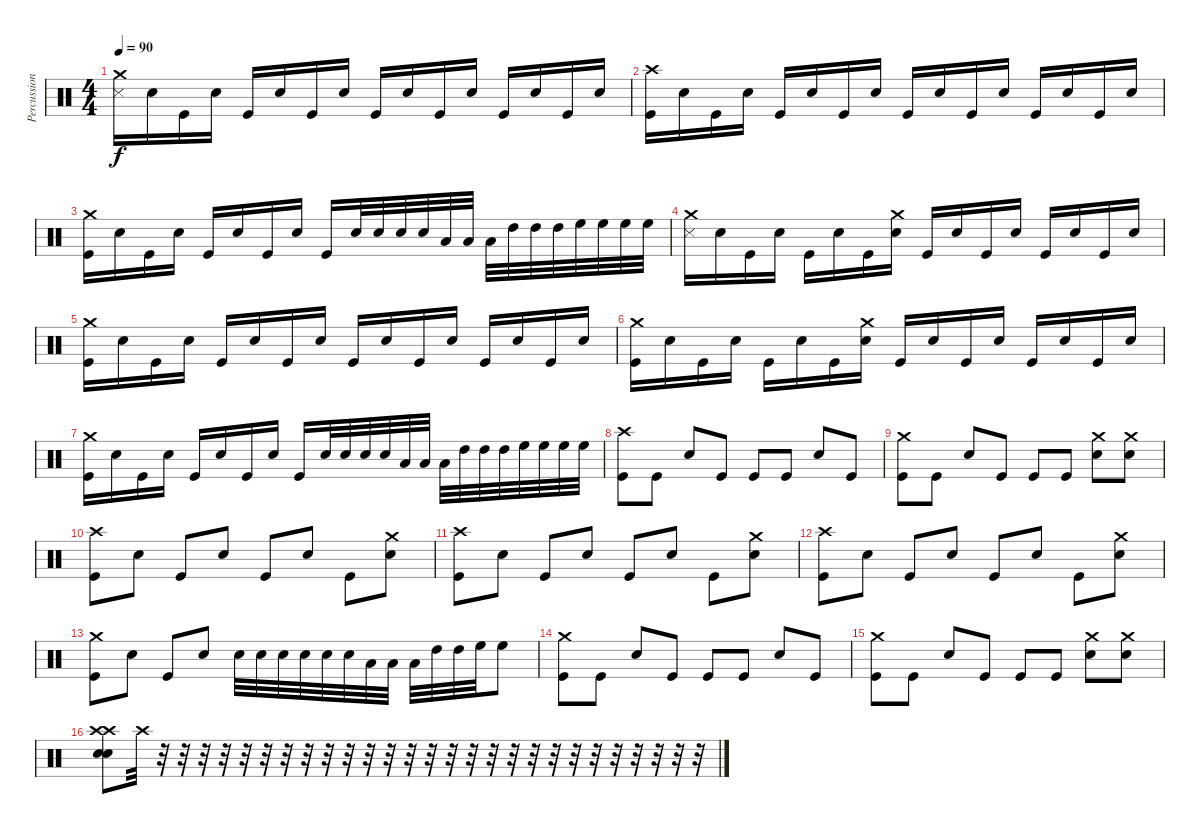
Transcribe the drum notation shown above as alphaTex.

\track ("Percussion" "Percussion") {instrument percussion}
\staff {score}
\articulation defaults
\ts (4 4)
\tempo 90
\clef neutral
\ks c
("Crash medium (hit)" "Metronome (hit)").16{dy f} "Electric Snare (hit)".16 "Kick (hit)".16 "Electric Snare (hit)".16 "Kick (hit)".16 "Electric Snare (hit)".16 "Kick (hit)".16 "Electric Snare (hit)".16 "Kick (hit)".16 "Electric Snare (hit)".16 "Kick (hit)".16 "Electric Snare (hit)".16 "Kick (hit)".16 "Electric Snare (hit)".16 "Kick (hit)".16 "Electric Snare (hit)".16 |
("Kick (hit)" "Crash high (hit)").16 "Electric Snare (hit)".16 "Kick (hit)".16 "Electric Snare (hit)".16 "Kick (hit)".16 "Electric Snare (hit)".16 "Kick (hit)".16 "Electric Snare (hit)".16 "Kick (hit)".16 "Electric Snare (hit)".16 "Kick (hit)".16 "Electric Snare (hit)".16 "Kick (hit)".16 "Electric Snare (hit)".16 "Kick (hit)".16 "Electric Snare (hit)".16 |
("Crash medium (hit)" "Kick (hit)").16 "Electric Snare (hit)".16 "Kick (hit)".16 "Electric Snare (hit)".16 "Kick (hit)".16 "Electric Snare (hit)".16 "Kick (hit)".16 "Electric Snare (hit)".16 "Kick (hit)".16 "Snare (hit) 2".32 "Snare (hit) 2".32 "Electric Snare (hit)".32 "Electric Snare (hit)".32 "Low Tom (hit)".32 "Low Tom (hit)".32 "Low Tom (hit)".32 "High Tom (hit)".32 "High Tom (hit)".32 "High Tom (hit)".32 "High Floor Tom (hit)".32 "High Floor Tom (hit)".32 "High Floor Tom (hit)".32 "High Floor Tom (hit)".32 |
("Crash medium (hit)" "Metronome (hit)").16 "Electric Snare (hit)".16 "Kick (hit)".16 "Electric Snare (hit)".16 "Kick (hit)".16 "Electric Snare (hit)".16 "Kick (hit)".16 ("Crash medium (hit)" "Electric Snare (hit)").16 "Kick (hit)".16 "Electric Snare (hit)".16 "Kick (hit)".16 "Electric Snare (hit)".16 "Kick (hit)".16 "Electric Snare (hit)".16 "Kick (hit)".16 "Electric Snare (hit)".16 |
("Crash medium (hit)" "Kick (hit)").16 "Electric Snare (hit)".16 "Kick (hit)".16 "Electric Snare (hit)".16 "Kick (hit)".16 "Electric Snare (hit)".16 "Kick (hit)".16 "Electric Snare (hit)".16 "Kick (hit)".16 "Electric Snare (hit)".16 "Kick (hit)".16 "Electric Snare (hit)".16 "Kick (hit)".16 "Electric Snare (hit)".16 "Kick (hit)".16 "Electric Snare (hit)".16 |
("Crash medium (hit)" "Kick (hit)").16 "Electric Snare (hit)".16 "Kick (hit)".16 "Electric Snare (hit)".16 "Kick (hit)".16 "Electric Snare (hit)".16 "Kick (hit)".16 ("Crash medium (hit)" "Electric Snare (hit)").16 "Kick (hit)".16 "Electric Snare (hit)".16 "Kick (hit)".16 "Electric Snare (hit)".16 "Kick (hit)".16 "Electric Snare (hit)".16 "Kick (hit)".16 "Electric Snare (hit)".16 |
("Crash medium (hit)" "Kick (hit)").16 "Electric Snare (hit)".16 "Kick (hit)".16 "Electric Snare (hit)".16 "Kick (hit)".16 "Electric Snare (hit)".16 "Kick (hit)".16 "Electric Snare (hit)".16 "Kick (hit)".16 "Snare (hit) 2".32 "Snare (hit) 2".32 "Electric Snare (hit)".32 "Electric Snare (hit)".32 "Low Tom (hit)".32 "Low Tom (hit)".32 "Low Tom (hit)".32 "High Tom (hit)".32 "High Tom (hit)".32 "High Tom (hit)".32 "High Floor Tom (hit)".32 "High Floor Tom (hit)".32 "High Floor Tom (hit)".32 "High Floor Tom (hit)".32 |
("Kick (hit)" "Crash high (hit)").8 "Kick (hit)".8 "Electric Snare (hit)".8 "Kick (hit)".8 "Kick (hit)".8 "Kick (hit)".8 "Electric Snare (hit)".8 "Kick (hit)".8 |
("Kick (hit)" "Crash medium (hit)").8 "Kick (hit)".8 "Electric Snare (hit)".8 "Kick (hit)".8 "Kick (hit)".8 "Kick (hit)".8 ("Crash medium (hit)" "Electric Snare (hit)").8 ("Crash medium (hit)" "Electric Snare (hit)").8 |
("Crash high (hit)" "Kick (hit)").8 "Electric Snare (hit)".8 "Kick (hit)".8 "Electric Snare (hit)".8 "Kick (hit)".8 "Electric Snare (hit)".8 "Kick (hit)".8 ("Crash medium (hit)" "Electric Snare (hit)").8 |
("Crash high (hit)" "Kick (hit)").8 "Electric Snare (hit)".8 "Kick (hit)".8 "Electric Snare (hit)".8 "Kick (hit)".8 "Electric Snare (hit)".8 "Kick (hit)".8 ("Crash medium (hit)" "Electric Snare (hit)").8 |
("Crash high (hit)" "Kick (hit)").8 "Electric Snare (hit)".8 "Kick (hit)".8 "Electric Snare (hit)".8 "Kick (hit)".8 "Electric Snare (hit)".8 "Kick (hit)".8 ("Crash medium (hit)" "Electric Snare (hit)").8 |
("Kick (hit)" "Crash medium (hit)").8 "Electric Snare (hit)".8 "Kick (hit)".8 "Electric Snare (hit)".8 "Electric Snare (hit)".32 "Electric Snare (hit)".32 "Electric Snare (hit)".32 "Snare (hit) 2".32 "Snare (hit) 2".32 "Snare (hit) 2".32 "Low Tom (hit)".32 "Low Tom (hit)".32 "Low Tom (hit)".32 "High Tom (hit)".32 "High Tom (hit)".32 "High Floor Tom (hit)".32 "High Floor Tom (hit)".8 |
("Kick (hit)" "Crash medium (hit)").8 "Kick (hit)".8 "Electric Snare (hit)".8 "Kick (hit)".8 "Kick (hit)".8 "Kick (hit)".8 "Electric Snare (hit)".8 "Kick (hit)".8 |
("Kick (hit)" "Crash medium (hit)").8 "Kick (hit)".8 "Electric Snare (hit)".8 "Kick (hit)".8 "Kick (hit)".8 "Kick (hit)".8 ("Crash medium (hit)" "Electric Snare (hit)").8 ("Crash medium (hit)" "Electric Snare (hit)").8 |
("Crash high (hit)" "Crash high (hit)" "Electric Snare (hit)" "Electric Snare (hit)").8 "Crash high (hit)".32 r.32 r.32 r.32 r.32 r.32 r.32 r.32 r.32 r.32 r.32 r.32 r.32 r.32 r.32 r.32 r.32 r.32 r.32 r.32 r.32 r.32 r.32 r.32 r.32 r.32 r.32 r.32
